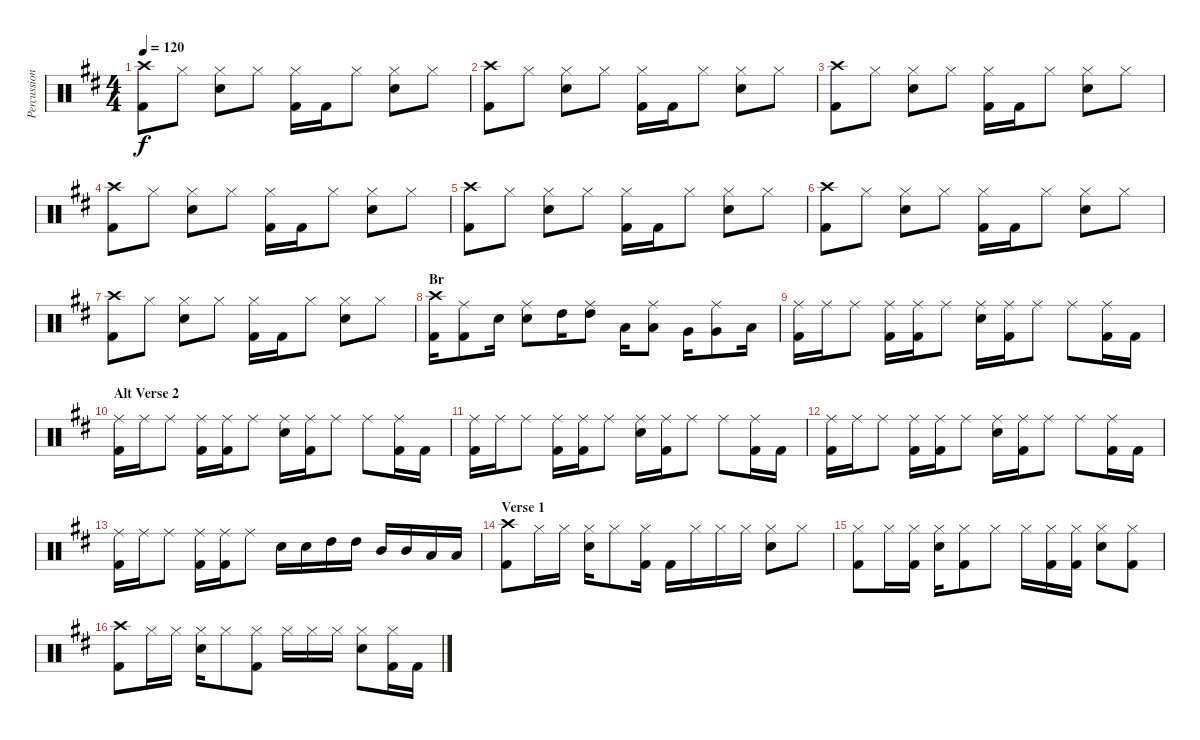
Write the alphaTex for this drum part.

\track ("Percussion" "Percussion") {instrument percussion}
\staff {score}
\articulation defaults
\ts (4 4)
\tempo 120
\clef neutral
\ks d
("Crash high (hit)" "Kick (hit) 2").8{dy f} "Hi-Hat (closed)".8 ("Hi-Hat (closed)" "Snare (hit) 2").8 "Hi-Hat (closed)".8 ("Hi-Hat (closed)" "Kick (hit) 2").16 "Kick (hit) 2".16 "Hi-Hat (closed)".8 ("Hi-Hat (closed)" "Snare (hit) 2").8 "Hi-Hat (closed)".8 |
("Crash high (hit)" "Kick (hit) 2").8 "Hi-Hat (closed)".8 ("Hi-Hat (closed)" "Snare (hit) 2").8 "Hi-Hat (closed)".8 ("Hi-Hat (closed)" "Kick (hit) 2").16 "Kick (hit) 2".16 "Hi-Hat (closed)".8 ("Hi-Hat (closed)" "Snare (hit) 2").8 "Hi-Hat (closed)".8 |
("Crash high (hit)" "Kick (hit) 2").8 "Hi-Hat (closed)".8 ("Hi-Hat (closed)" "Snare (hit) 2").8 "Hi-Hat (closed)".8 ("Hi-Hat (closed)" "Kick (hit) 2").16 "Kick (hit) 2".16 "Hi-Hat (closed)".8 ("Hi-Hat (closed)" "Snare (hit) 2").8 "Hi-Hat (closed)".8 |
("Crash high (hit)" "Kick (hit) 2").8 "Hi-Hat (closed)".8 ("Hi-Hat (closed)" "Snare (hit) 2").8 "Hi-Hat (closed)".8 ("Hi-Hat (closed)" "Kick (hit) 2").16 "Kick (hit) 2".16 "Hi-Hat (closed)".8 ("Hi-Hat (closed)" "Snare (hit) 2").8 "Hi-Hat (closed)".8 |
("Crash high (hit)" "Kick (hit) 2").8 "Hi-Hat (closed)".8 ("Hi-Hat (closed)" "Snare (hit) 2").8 "Hi-Hat (closed)".8 ("Hi-Hat (closed)" "Kick (hit) 2").16 "Kick (hit) 2".16 "Hi-Hat (closed)".8 ("Hi-Hat (closed)" "Snare (hit) 2").8 "Hi-Hat (closed)".8 |
("Crash high (hit)" "Kick (hit) 2").8 "Hi-Hat (closed)".8 ("Hi-Hat (closed)" "Snare (hit) 2").8 "Hi-Hat (closed)".8 ("Hi-Hat (closed)" "Kick (hit) 2").16 "Kick (hit) 2".16 "Hi-Hat (closed)".8 ("Hi-Hat (closed)" "Snare (hit) 2").8 "Hi-Hat (closed)".8 |
("Crash high (hit)" "Kick (hit) 2").8 "Hi-Hat (closed)".8 ("Hi-Hat (closed)" "Snare (hit) 2").8 "Hi-Hat (closed)".8 ("Hi-Hat (closed)" "Kick (hit) 2").16 "Kick (hit) 2".16 "Hi-Hat (closed)".8 ("Hi-Hat (closed)" "Snare (hit) 2").8 "Hi-Hat (closed)".8 |
\section ("" "Br")
("Crash high (hit)" "Kick (hit) 2").16 ("Ride (middle)" "Kick (hit) 2").8 "Snare (hit) 2".16 ("Ride (middle)" "Snare (hit) 2").8 "High Tom (hit)".16 ("Ride (middle)" "High Tom (hit)").8 "Low Tom (hit)".16 ("Ride (middle)" "Low Tom (hit)").8 "Very Low Tom (hit)".16 ("Ride (middle)" "Very Low Tom (hit)").8 "Low Floor Tom (hit)".16 |
("Ride (middle)" "Kick (hit) 2").16 "Ride (middle)".16 "Ride (middle)".8 ("Ride (middle)" "Kick (hit) 2").16 ("Ride (middle)" "Kick (hit) 2").16 "Ride (middle)".8 ("Ride (middle)" "Snare (hit) 2").16 ("Ride (middle)" "Kick (hit) 2").16 "Ride (middle)".8 "Ride (middle)".8 ("Ride (middle)" "Kick (hit) 2").16 "Kick (hit) 2".16 |
\section ("" "Alt Verse 2")
("Ride (middle)" "Kick (hit) 2").16 "Ride (middle)".16 "Ride (middle)".8 ("Ride (middle)" "Kick (hit) 2").16 ("Ride (middle)" "Kick (hit) 2").16 "Ride (middle)".8 ("Ride (middle)" "Snare (hit) 2").16 ("Ride (middle)" "Kick (hit) 2").16 "Ride (middle)".8 "Ride (middle)".8 ("Ride (middle)" "Kick (hit) 2").16 "Kick (hit) 2".16 |
("Ride (middle)" "Kick (hit) 2").16 "Ride (middle)".16 "Ride (middle)".8 ("Ride (middle)" "Kick (hit) 2").16 ("Ride (middle)" "Kick (hit) 2").16 "Ride (middle)".8 ("Ride (middle)" "Snare (hit) 2").16 ("Ride (middle)" "Kick (hit) 2").16 "Ride (middle)".8 "Ride (middle)".8 ("Ride (middle)" "Kick (hit) 2").16 "Kick (hit) 2".16 |
("Ride (middle)" "Kick (hit) 2").16 "Ride (middle)".16 "Ride (middle)".8 ("Ride (middle)" "Kick (hit) 2").16 ("Ride (middle)" "Kick (hit) 2").16 "Ride (middle)".8 ("Ride (middle)" "Snare (hit) 2").16 ("Ride (middle)" "Kick (hit) 2").16 "Ride (middle)".8 "Ride (middle)".8 ("Ride (middle)" "Kick (hit) 2").16 "Kick (hit) 2".16 |
("Ride (middle)" "Kick (hit) 2").16 "Ride (middle)".16 "Ride (middle)".8 ("Ride (middle)" "Kick (hit) 2").16 ("Ride (middle)" "Kick (hit) 2").16 "Ride (middle)".8 "Snare (hit) 2".16 "Snare (hit) 2".16 "High Tom (hit)".16 "High Tom (hit)".16 "Mid Tom (hit)".16 "Mid Tom (hit)".16 "Low Tom (hit)".16 "Low Tom (hit)".16 |
\section ("" "Verse 1")
("Crash high (hit)" "Kick (hit) 2").8 "Hi-Hat (closed)".16 "Hi-Hat (closed)".16 ("Hi-Hat (closed)" "Snare (hit) 2").16 "Hi-Hat (closed)".8 ("Hi-Hat (closed)" "Kick (hit) 2").16 "Kick (hit) 2".16 "Hi-Hat (closed)".16 "Hi-Hat (closed)".16 "Hi-Hat (closed)".16 ("Hi-Hat (closed)" "Snare (hit) 2").8 "Hi-Hat (closed)".8 |
("Hi-Hat (closed)" "Kick (hit) 2").8 "Hi-Hat (closed)".16 ("Hi-Hat (closed)" "Kick (hit) 2").16 ("Hi-Hat (closed)" "Snare (hit) 2").16 ("Hi-Hat (closed)" "Kick (hit) 2").8 "Hi-Hat (closed)".8 "Hi-Hat (closed)".16 ("Hi-Hat (closed)" "Kick (hit) 2").16 ("Hi-Hat (closed)" "Kick (hit) 2").16 ("Hi-Hat (closed)" "Snare (hit) 2").8 ("Hi-Hat (closed)" "Kick (hit) 2").8 |
("Crash high (hit)" "Kick (hit) 2").8 "Hi-Hat (closed)".16 "Hi-Hat (closed)".16 ("Hi-Hat (closed)" "Snare (hit) 2").16 "Hi-Hat (closed)".8 ("Hi-Hat (closed)" "Kick (hit) 2").8 "Hi-Hat (closed)".16 "Hi-Hat (closed)".16 "Hi-Hat (closed)".16 ("Hi-Hat (closed)" "Snare (hit) 2").8 ("Hi-Hat (closed)" "Kick (hit) 2").16 "Kick (hit) 2".16
